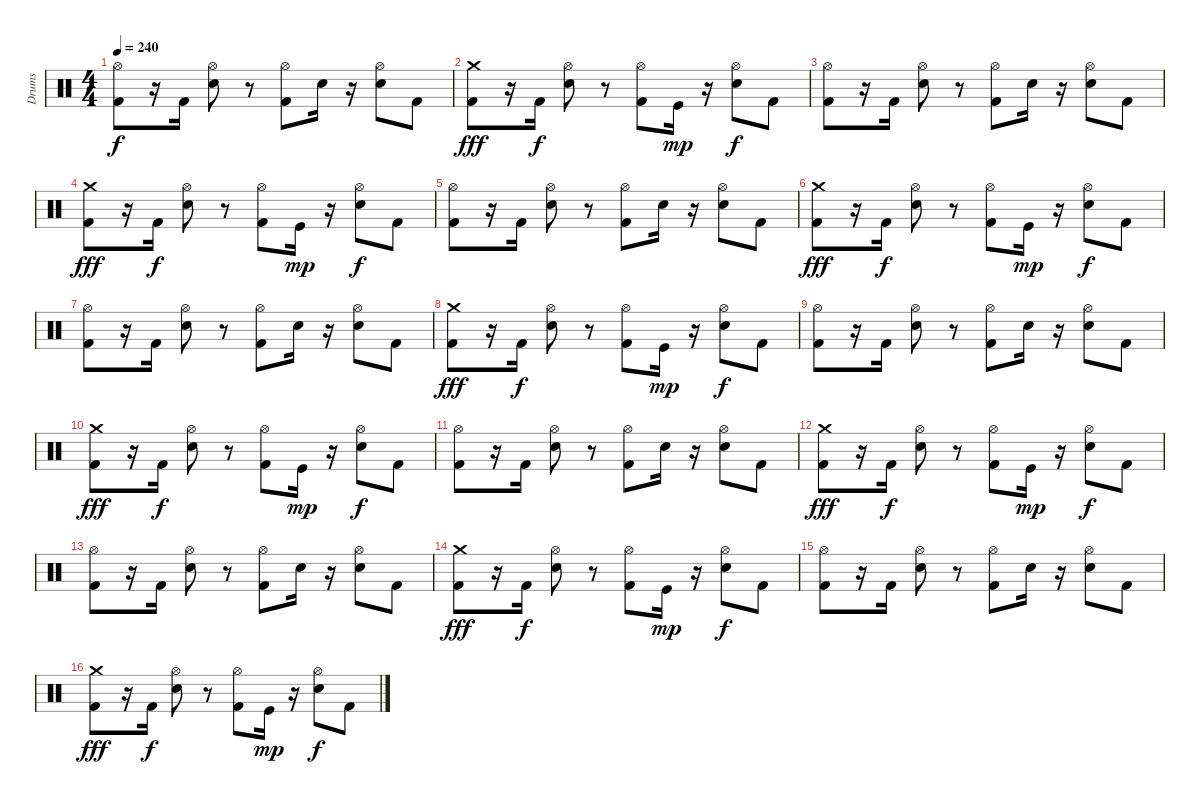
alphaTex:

\track ("Drums" "Drums") {instrument percussion}
\staff {score}
\articulation defaults
\ts (4 4)
\tempo 240
\clef neutral
\ks c
("Kick (hit) 2" "Hi-Hat (open)").8{dy f} r.16 "Kick (hit) 2".16 ("Electric Snare (hit)" "Hi-Hat (open)").8 r.8 ("Kick (hit) 2" "Hi-Hat (open)").8 "Electric Snare (hit)".16 r.16 ("Electric Snare (hit)" "Hi-Hat (open)").8 "Kick (hit) 2".8 |
("Kick (hit) 2" "Crash medium (hit)").8{dy fff} r.16 "Kick (hit) 2".16{dy f} ("Electric Snare (hit)" "Hi-Hat (open)").8 r.8 ("Kick (hit) 2" "Hi-Hat (open)").8 "Kick (hit)".16{dy mp} r.16 ("Electric Snare (hit)" "Hi-Hat (open)").8{dy f} "Kick (hit) 2".8 |
("Kick (hit) 2" "Hi-Hat (open)").8 r.16 "Kick (hit) 2".16 ("Electric Snare (hit)" "Hi-Hat (open)").8 r.8 ("Kick (hit) 2" "Hi-Hat (open)").8 "Electric Snare (hit)".16 r.16 ("Electric Snare (hit)" "Hi-Hat (open)").8 "Kick (hit) 2".8 |
("Kick (hit) 2" "Crash medium (hit)").8{dy fff} r.16 "Kick (hit) 2".16{dy f} ("Electric Snare (hit)" "Hi-Hat (open)").8 r.8 ("Kick (hit) 2" "Hi-Hat (open)").8 "Kick (hit)".16{dy mp} r.16 ("Electric Snare (hit)" "Hi-Hat (open)").8{dy f} "Kick (hit) 2".8 |
("Kick (hit) 2" "Hi-Hat (open)").8 r.16 "Kick (hit) 2".16 ("Electric Snare (hit)" "Hi-Hat (open)").8 r.8 ("Kick (hit) 2" "Hi-Hat (open)").8 "Electric Snare (hit)".16 r.16 ("Electric Snare (hit)" "Hi-Hat (open)").8 "Kick (hit) 2".8 |
("Kick (hit) 2" "Crash medium (hit)").8{dy fff} r.16 "Kick (hit) 2".16{dy f} ("Electric Snare (hit)" "Hi-Hat (open)").8 r.8 ("Kick (hit) 2" "Hi-Hat (open)").8 "Kick (hit)".16{dy mp} r.16 ("Electric Snare (hit)" "Hi-Hat (open)").8{dy f} "Kick (hit) 2".8 |
("Kick (hit) 2" "Hi-Hat (open)").8 r.16 "Kick (hit) 2".16 ("Electric Snare (hit)" "Hi-Hat (open)").8 r.8 ("Kick (hit) 2" "Hi-Hat (open)").8 "Electric Snare (hit)".16 r.16 ("Electric Snare (hit)" "Hi-Hat (open)").8 "Kick (hit) 2".8 |
("Kick (hit) 2" "Crash medium (hit)").8{dy fff} r.16 "Kick (hit) 2".16{dy f} ("Electric Snare (hit)" "Hi-Hat (open)").8 r.8 ("Kick (hit) 2" "Hi-Hat (open)").8 "Kick (hit)".16{dy mp} r.16 ("Electric Snare (hit)" "Hi-Hat (open)").8{dy f} "Kick (hit) 2".8 |
("Kick (hit) 2" "Hi-Hat (open)").8 r.16 "Kick (hit) 2".16 ("Electric Snare (hit)" "Hi-Hat (open)").8 r.8 ("Kick (hit) 2" "Hi-Hat (open)").8 "Electric Snare (hit)".16 r.16 ("Electric Snare (hit)" "Hi-Hat (open)").8 "Kick (hit) 2".8 |
("Kick (hit) 2" "Crash medium (hit)").8{dy fff} r.16 "Kick (hit) 2".16{dy f} ("Electric Snare (hit)" "Hi-Hat (open)").8 r.8 ("Kick (hit) 2" "Hi-Hat (open)").8 "Kick (hit)".16{dy mp} r.16 ("Electric Snare (hit)" "Hi-Hat (open)").8{dy f} "Kick (hit) 2".8 |
("Kick (hit) 2" "Hi-Hat (open)").8 r.16 "Kick (hit) 2".16 ("Electric Snare (hit)" "Hi-Hat (open)").8 r.8 ("Kick (hit) 2" "Hi-Hat (open)").8 "Electric Snare (hit)".16 r.16 ("Electric Snare (hit)" "Hi-Hat (open)").8 "Kick (hit) 2".8 |
("Kick (hit) 2" "Crash medium (hit)").8{dy fff} r.16 "Kick (hit) 2".16{dy f} ("Electric Snare (hit)" "Hi-Hat (open)").8 r.8 ("Kick (hit) 2" "Hi-Hat (open)").8 "Kick (hit)".16{dy mp} r.16 ("Electric Snare (hit)" "Hi-Hat (open)").8{dy f} "Kick (hit) 2".8 |
("Kick (hit) 2" "Hi-Hat (open)").8 r.16 "Kick (hit) 2".16 ("Electric Snare (hit)" "Hi-Hat (open)").8 r.8 ("Kick (hit) 2" "Hi-Hat (open)").8 "Electric Snare (hit)".16 r.16 ("Electric Snare (hit)" "Hi-Hat (open)").8 "Kick (hit) 2".8 |
("Kick (hit) 2" "Crash medium (hit)").8{dy fff} r.16 "Kick (hit) 2".16{dy f} ("Electric Snare (hit)" "Hi-Hat (open)").8 r.8 ("Kick (hit) 2" "Hi-Hat (open)").8 "Kick (hit)".16{dy mp} r.16 ("Electric Snare (hit)" "Hi-Hat (open)").8{dy f} "Kick (hit) 2".8 |
("Kick (hit) 2" "Hi-Hat (open)").8 r.16 "Kick (hit) 2".16 ("Electric Snare (hit)" "Hi-Hat (open)").8 r.8 ("Kick (hit) 2" "Hi-Hat (open)").8 "Electric Snare (hit)".16 r.16 ("Electric Snare (hit)" "Hi-Hat (open)").8 "Kick (hit) 2".8 |
("Kick (hit) 2" "Crash medium (hit)").8{dy fff} r.16 "Kick (hit) 2".16{dy f} ("Electric Snare (hit)" "Hi-Hat (open)").8 r.8 ("Kick (hit) 2" "Hi-Hat (open)").8 "Kick (hit)".16{dy mp} r.16 ("Electric Snare (hit)" "Hi-Hat (open)").8{dy f} "Kick (hit) 2".8
